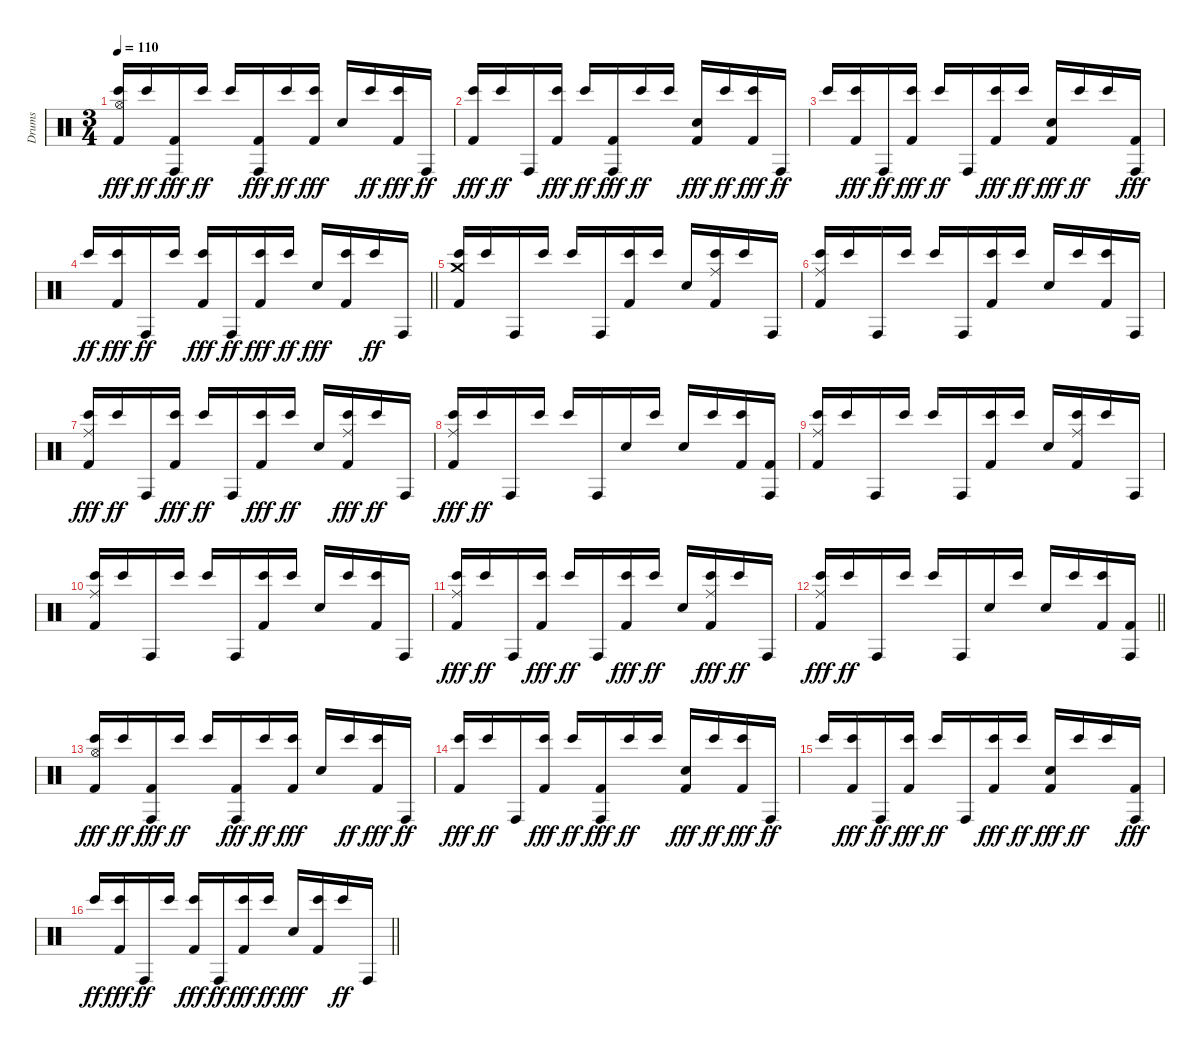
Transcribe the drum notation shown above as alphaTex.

\track ("Drums" "Drums") {instrument percussion}
\staff {score}
\articulation defaults
\ts (3 4)
\section ("" "")
\tempo 110
\clef neutral
\ks c
("Hi-Hat (open)" "Bongo High (hit)" "Kick (hit) 2").16{dy fff} "Bongo High (hit)".16{dy ff} ("Conga high (hit)" "Kick (hit) 2").16{dy fff} "Bongo High (hit)".16{dy ff} "Bongo High (hit)".16 ("Conga high (hit)" "Kick (hit) 2").16{dy fff} "Bongo High (hit)".16{dy ff} ("Bongo High (hit)" "Kick (hit) 2").16{dy fff} "Snare (hit) 2".16 "Bongo High (hit)".16{dy ff} ("Bongo High (hit)" "Kick (hit) 2").16{dy fff} "Conga high (hit)".16{dy ff} |
("Bongo High (hit)" "Kick (hit) 2").16{dy fff} "Bongo High (hit)".16{dy ff} "Conga high (hit)".16 ("Bongo High (hit)" "Kick (hit) 2").16{dy fff} "Bongo High (hit)".16{dy ff} ("Conga high (hit)" "Kick (hit) 2").16{dy fff} "Bongo High (hit)".16{dy ff} "Bongo High (hit)".16 ("Snare (hit) 2" "Kick (hit) 2").16{dy fff} "Bongo High (hit)".16{dy ff} ("Bongo High (hit)" "Kick (hit) 2").16{dy fff} "Conga high (hit)".16{dy ff} |
"Bongo High (hit)".16 ("Bongo High (hit)" "Kick (hit) 2").16{dy fff} "Conga high (hit)".16{dy ff} ("Bongo High (hit)" "Kick (hit) 2").16{dy fff} "Bongo High (hit)".16{dy ff} "Conga high (hit)".16 ("Bongo High (hit)" "Kick (hit) 2").16{dy fff} "Bongo High (hit)".16{dy ff} ("Snare (hit) 2" "Kick (hit) 2").16{dy fff} "Bongo High (hit)".16{dy ff} "Bongo High (hit)".16 ("Conga high (hit)" "Kick (hit) 2").16{dy fff} |
\barLineRight lightlight "Bongo High (hit)".16{dy ff}
("Bongo High (hit)" "Kick (hit) 2").16{dy fff} "Conga high (hit)".16{dy ff} "Bongo High (hit)".16 ("Bongo High (hit)" "Kick (hit) 2").16{dy fff} "Conga high (hit)".16{dy ff} ("Bongo High (hit)" "Kick (hit) 2").16{dy fff} "Bongo High (hit)".16{dy ff} "Snare (hit) 2".16{dy fff} ("Bongo High (hit)" "Kick (hit) 2").16 "Bongo High (hit)".16{dy ff} "Conga high (hit)".16 |
\section ("" "")
("Crash medium (hit)" "Bongo High (hit)" "Kick (hit) 2").16 "Bongo High (hit)".16 "Conga high (hit)".16 "Bongo High (hit)".16 "Bongo High (hit)".16 "Conga high (hit)".16 ("Bongo High (hit)" "Kick (hit) 2").16 "Bongo High (hit)".16 "Snare (hit) 2".16 ("Ride (middle)" "Bongo High (hit)" "Kick (hit) 2").16 "Bongo High (hit)".16 "Conga high (hit)".16 |
("Ride (middle)" "Bongo High (hit)" "Kick (hit) 2").16 "Bongo High (hit)".16 "Conga high (hit)".16 "Bongo High (hit)".16 "Bongo High (hit)".16 "Conga high (hit)".16 ("Bongo High (hit)" "Kick (hit) 2").16 "Bongo High (hit)".16 "Snare (hit) 2".16 "Bongo High (hit)".16 ("Bongo High (hit)" "Kick (hit) 2").16 "Conga high (hit)".16 |
("Ride (middle)" "Bongo High (hit)" "Kick (hit) 2").16{dy fff} "Bongo High (hit)".16{dy ff} "Conga high (hit)".16 ("Bongo High (hit)" "Kick (hit) 2").16{dy fff} "Bongo High (hit)".16{dy ff} "Conga high (hit)".16 ("Bongo High (hit)" "Kick (hit) 2").16{dy fff} "Bongo High (hit)".16{dy ff} "Snare (hit) 2".16 ("Ride (middle)" "Bongo High (hit)" "Kick (hit) 2").16{dy fff} "Bongo High (hit)".16{dy ff} "Conga high (hit)".16 |
("Ride (middle)" "Bongo High (hit)" "Kick (hit) 2").16{dy fff} "Bongo High (hit)".16{dy ff} "Conga high (hit)".16 "Bongo High (hit)".16 "Bongo High (hit)".16 "Conga high (hit)".16 "Snare (hit) 2".16 "Bongo High (hit)".16 "Snare (hit) 2".16 "Bongo High (hit)".16 ("Bongo High (hit)" "Kick (hit) 2").16 ("Conga high (hit)" "Kick (hit) 2").16 |
("Ride (middle)" "Bongo High (hit)" "Kick (hit) 2").16 "Bongo High (hit)".16 "Conga high (hit)".16 "Bongo High (hit)".16 "Bongo High (hit)".16 "Conga high (hit)".16 ("Bongo High (hit)" "Kick (hit) 2").16 "Bongo High (hit)".16 "Snare (hit) 2".16 ("Ride (middle)" "Bongo High (hit)" "Kick (hit) 2").16 "Bongo High (hit)".16 "Conga high (hit)".16 |
("Ride (middle)" "Bongo High (hit)" "Kick (hit) 2").16 "Bongo High (hit)".16 "Conga high (hit)".16 "Bongo High (hit)".16 "Bongo High (hit)".16 "Conga high (hit)".16 ("Bongo High (hit)" "Kick (hit) 2").16 "Bongo High (hit)".16 "Snare (hit) 2".16 "Bongo High (hit)".16 ("Bongo High (hit)" "Kick (hit) 2").16 "Conga high (hit)".16 |
("Ride (middle)" "Bongo High (hit)" "Kick (hit) 2").16{dy fff} "Bongo High (hit)".16{dy ff} "Conga high (hit)".16 ("Bongo High (hit)" "Kick (hit) 2").16{dy fff} "Bongo High (hit)".16{dy ff} "Conga high (hit)".16 ("Bongo High (hit)" "Kick (hit) 2").16{dy fff} "Bongo High (hit)".16{dy ff} "Snare (hit) 2".16 ("Ride (middle)" "Bongo High (hit)" "Kick (hit) 2").16{dy fff} "Bongo High (hit)".16{dy ff} "Conga high (hit)".16 |
\barLineRight lightlight
("Ride (middle)" "Bongo High (hit)" "Kick (hit) 2").16{dy fff} "Bongo High (hit)".16{dy ff} "Conga high (hit)".16 "Bongo High (hit)".16 "Bongo High (hit)".16 "Conga high (hit)".16 "Snare (hit) 2".16 "Bongo High (hit)".16 "Snare (hit) 2".16 "Bongo High (hit)".16 ("Bongo High (hit)" "Kick (hit) 2").16 ("Conga high (hit)" "Kick (hit) 2").16 |
\section ("" "")
("Hi-Hat (open)" "Bongo High (hit)" "Kick (hit) 2").16{dy fff} "Bongo High (hit)".16{dy ff} ("Conga high (hit)" "Kick (hit) 2").16{dy fff} "Bongo High (hit)".16{dy ff} "Bongo High (hit)".16 ("Conga high (hit)" "Kick (hit) 2").16{dy fff} "Bongo High (hit)".16{dy ff} ("Bongo High (hit)" "Kick (hit) 2").16{dy fff} "Snare (hit) 2".16 "Bongo High (hit)".16{dy ff} ("Bongo High (hit)" "Kick (hit) 2").16{dy fff} "Conga high (hit)".16{dy ff} |
("Bongo High (hit)" "Kick (hit) 2").16{dy fff} "Bongo High (hit)".16{dy ff} "Conga high (hit)".16 ("Bongo High (hit)" "Kick (hit) 2").16{dy fff} "Bongo High (hit)".16{dy ff} ("Conga high (hit)" "Kick (hit) 2").16{dy fff} "Bongo High (hit)".16{dy ff} "Bongo High (hit)".16 ("Snare (hit) 2" "Kick (hit) 2").16{dy fff} "Bongo High (hit)".16{dy ff} ("Bongo High (hit)" "Kick (hit) 2").16{dy fff} "Conga high (hit)".16{dy ff} |
"Bongo High (hit)".16 ("Bongo High (hit)" "Kick (hit) 2").16{dy fff} "Conga high (hit)".16{dy ff} ("Bongo High (hit)" "Kick (hit) 2").16{dy fff} "Bongo High (hit)".16{dy ff} "Conga high (hit)".16 ("Bongo High (hit)" "Kick (hit) 2").16{dy fff} "Bongo High (hit)".16{dy ff} ("Snare (hit) 2" "Kick (hit) 2").16{dy fff} "Bongo High (hit)".16{dy ff} "Bongo High (hit)".16 ("Conga high (hit)" "Kick (hit) 2").16{dy fff} |
\barLineRight lightlight "Bongo High (hit)".16{dy ff}
("Bongo High (hit)" "Kick (hit) 2").16{dy fff} "Conga high (hit)".16{dy ff} "Bongo High (hit)".16 ("Bongo High (hit)" "Kick (hit) 2").16{dy fff} "Conga high (hit)".16{dy ff} ("Bongo High (hit)" "Kick (hit) 2").16{dy fff} "Bongo High (hit)".16{dy ff} "Snare (hit) 2".16{dy fff} ("Bongo High (hit)" "Kick (hit) 2").16 "Bongo High (hit)".16{dy ff} "Conga high (hit)".16
